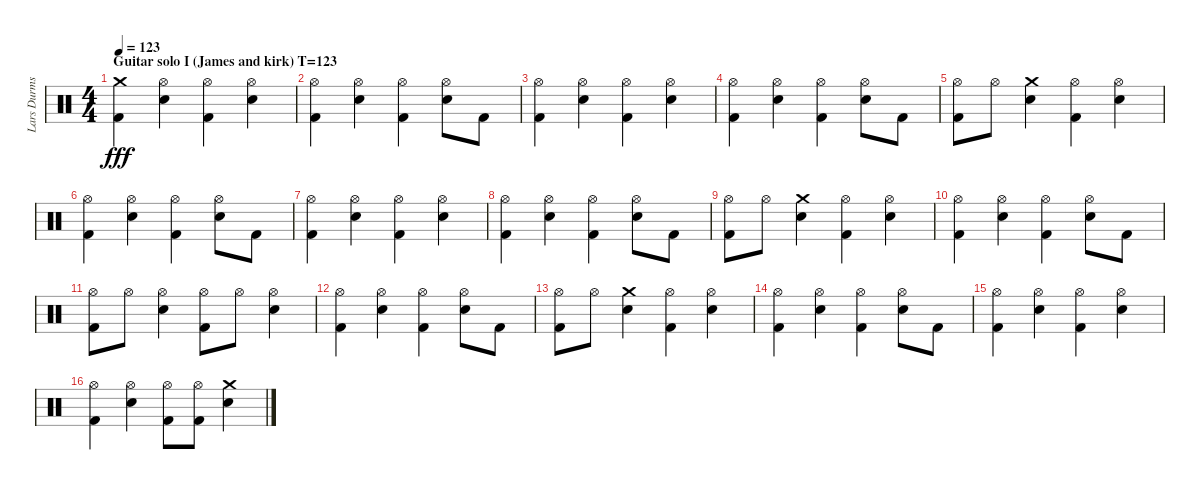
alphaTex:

\track ("Lars Durms" "Lars Durms") {instrument percussion}
\staff {score}
\articulation defaults
\ts (4 4)
\section ("" "Guitar solo I (James and kirk) T=123")
\tempo 123
\clef neutral
\ks c
("Kick (hit) 2" "Crash medium (hit)").4{dy fff} ("Hi-Hat (open)" "Snare (hit) 2").4 ("Hi-Hat (open)" "Kick (hit) 2").4 ("Snare (hit) 2" "Hi-Hat (open)").4 |
("Hi-Hat (open)" "Kick (hit) 2").4 ("Hi-Hat (open)" "Snare (hit) 2").4 ("Hi-Hat (open)" "Kick (hit) 2").4 ("Snare (hit) 2" "Hi-Hat (open)").8 "Kick (hit) 2".8 |
("Kick (hit) 2" "Hi-Hat (open)").4 ("Snare (hit) 2" "Hi-Hat (open)").4 ("Kick (hit) 2" "Hi-Hat (open)").4 ("Snare (hit) 2" "Hi-Hat (open)").4 |
("Hi-Hat (open)" "Kick (hit) 2").4 ("Hi-Hat (open)" "Snare (hit) 2").4 ("Hi-Hat (open)" "Kick (hit) 2").4 ("Snare (hit) 2" "Hi-Hat (open)").8 "Kick (hit) 2".8 |
("Hi-Hat (open)" "Kick (hit) 2").8 "Hi-Hat (open)".8 ("Snare (hit) 2" "Crash medium (hit)").4 ("Hi-Hat (open)" "Kick (hit) 2").4 ("Hi-Hat (open)" "Snare (hit) 2").4 |
("Hi-Hat (open)" "Kick (hit) 2").4 ("Hi-Hat (open)" "Snare (hit) 2").4 ("Hi-Hat (open)" "Kick (hit) 2").4 ("Snare (hit) 2" "Hi-Hat (open)").8 "Kick (hit) 2".8 |
("Kick (hit) 2" "Hi-Hat (open)").4 ("Snare (hit) 2" "Hi-Hat (open)").4 ("Kick (hit) 2" "Hi-Hat (open)").4 ("Snare (hit) 2" "Hi-Hat (open)").4 |
("Hi-Hat (open)" "Kick (hit) 2").4 ("Hi-Hat (open)" "Snare (hit) 2").4 ("Hi-Hat (open)" "Kick (hit) 2").4 ("Snare (hit) 2" "Hi-Hat (open)").8 "Kick (hit) 2".8 |
("Hi-Hat (open)" "Kick (hit) 2").8 "Hi-Hat (open)".8 ("Snare (hit) 2" "Crash medium (hit)").4 ("Hi-Hat (open)" "Kick (hit) 2").4 ("Hi-Hat (open)" "Snare (hit) 2").4 |
("Hi-Hat (open)" "Kick (hit) 2").4 ("Hi-Hat (open)" "Snare (hit) 2").4 ("Hi-Hat (open)" "Kick (hit) 2").4 ("Snare (hit) 2" "Hi-Hat (open)").8 "Kick (hit) 2".8 |
("Kick (hit) 2" "Hi-Hat (open)").8 "Hi-Hat (open)".8 ("Hi-Hat (open)" "Snare (hit) 2").4 ("Kick (hit) 2" "Hi-Hat (open)").8 "Hi-Hat (open)".8 ("Snare (hit) 2" "Hi-Hat (open)").4 |
("Kick (hit) 2" "Hi-Hat (open)").4 ("Snare (hit) 2" "Hi-Hat (open)").4 ("Hi-Hat (open)" "Kick (hit) 2").4 ("Hi-Hat (open)" "Snare (hit) 2").8 "Kick (hit) 2".8 |
("Kick (hit) 2" "Hi-Hat (open)").8 "Hi-Hat (open)".8 ("Crash medium (hit)" "Snare (hit) 2").4 ("Kick (hit) 2" "Hi-Hat (open)").4 ("Snare (hit) 2" "Hi-Hat (open)").4 |
("Hi-Hat (open)" "Kick (hit) 2").4 ("Snare (hit) 2" "Hi-Hat (open)").4 ("Hi-Hat (open)" "Kick (hit) 2").4 ("Snare (hit) 2" "Hi-Hat (open)").8 "Kick (hit) 2".8 |
("Kick (hit) 2" "Hi-Hat (open)").4 ("Snare (hit) 2" "Hi-Hat (open)").4 ("Kick (hit) 2" "Hi-Hat (open)").4 ("Snare (hit) 2" "Hi-Hat (open)").4 |
("Hi-Hat (open)" "Kick (hit) 2").4 ("Snare (hit) 2" "Hi-Hat (open)").4 ("Hi-Hat (open)" "Kick (hit) 2").8 ("Hi-Hat (open)" "Kick (hit) 2").8 ("Crash medium (hit)" "Snare (hit) 2").4
